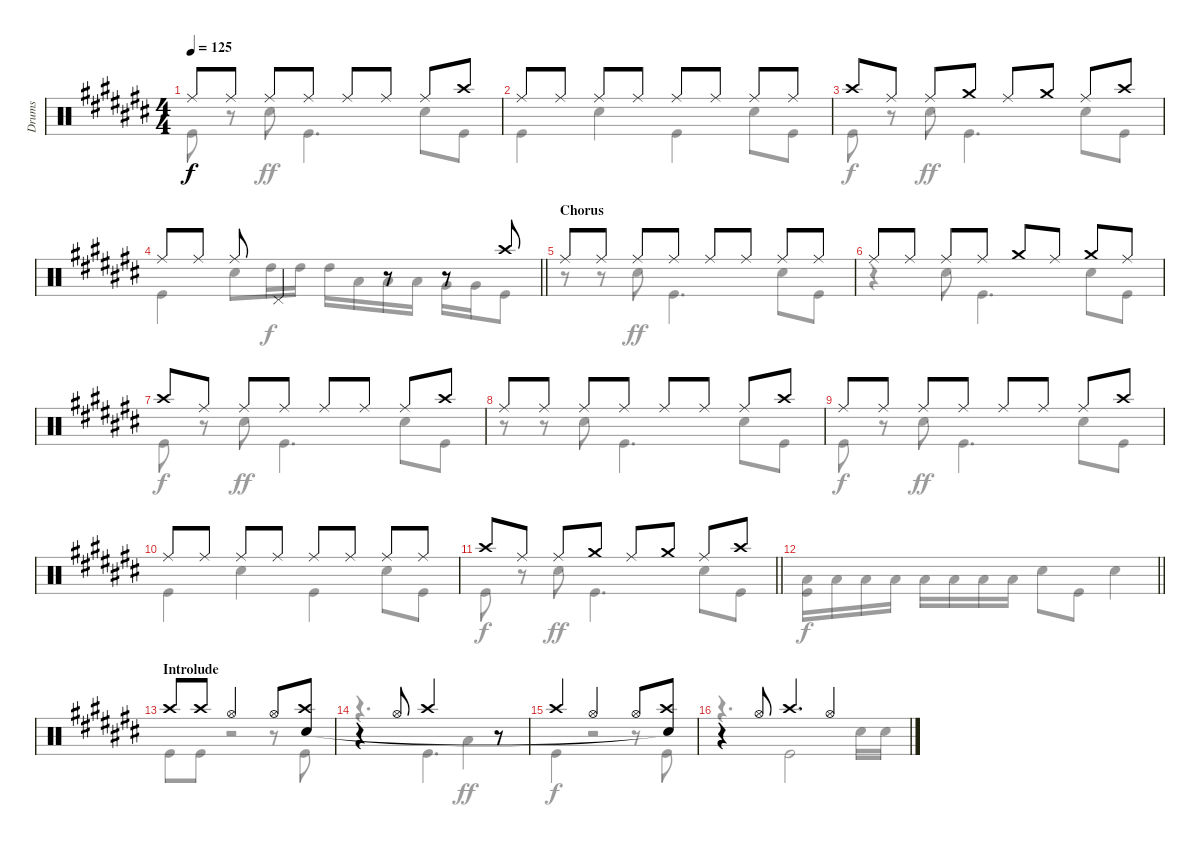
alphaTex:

\track ("Drums" "Drums") {instrument percussion}
\staff {score}
\articulation defaults
\voice
\ts (4 4)
\tempo 125
\clef neutral
\ks c# "Ride (middle)".8{dy f} "Ride (middle)".8 "Ride (middle)".8 "Ride (middle)".8 "Ride (middle)".8 "Ride (middle)".8 "Ride (middle)".8 "Crash high (hit)".8
|
"Ride (middle)".8 "Ride (middle)".8 "Ride (middle)".8 "Ride (middle)".8 "Ride (middle)".8 "Ride (middle)".8 "Ride (middle)".8 "Ride (middle)".8 |
"Crash high (hit)".8 "Ride (middle)".8 "Ride (middle)".8 "Crash medium (hit)".8 "Ride (middle)".8 "Crash medium (hit)".8 "Ride (middle)".8 "Crash high (hit)".8 |
\barLineRight lightlight "Ride (middle)".8 "Ride (middle)".8 "Ride (middle)".8 "Pedal Hi-Hat (hit)".4
r.8 r.8 "Crash high (hit)".8 |
\section ("" "Chorus")
"Ride (middle)".8 "Ride (middle)".8 "Ride (middle)".8 "Ride (middle)".8 "Ride (middle)".8 "Ride (middle)".8 "Ride (middle)".8 "Ride (middle)".8 |
"Ride (middle)".8 "Ride (middle)".8 "Ride (middle)".8 "Ride (middle)".8 "Crash medium (hit)".8 "Ride (middle)".8 "Crash medium (hit)".8 "Ride (middle)".8 |
"Crash high (hit)".8 "Ride (middle)".8 "Ride (middle)".8 "Ride (middle)".8 "Ride (middle)".8 "Ride (middle)".8 "Ride (middle)".8 "Crash high (hit)".8 |
"Ride (middle)".8 "Ride (middle)".8 "Ride (middle)".8 "Ride (middle)".8 "Ride (middle)".8 "Ride (middle)".8 "Ride (middle)".8 "Crash high (hit)".8 |
"Ride (middle)".8 "Ride (middle)".8 "Ride (middle)".8 "Ride (middle)".8 "Ride (middle)".8 "Ride (middle)".8 "Ride (middle)".8 "Crash high (hit)".8 |
"Ride (middle)".8 "Ride (middle)".8 "Ride (middle)".8 "Ride (middle)".8 "Ride (middle)".8 "Ride (middle)".8 "Ride (middle)".8 "Ride (middle)".8 |
\barLineRight lightlight "Crash high (hit)".8 "Ride (middle)".8 "Ride (middle)".8 "Crash medium (hit)".8 "Ride (middle)".8 "Crash medium (hit)".8 "Ride (middle)".8 "Crash high (hit)".8
|
\barLineRight lightlight
|
\section ("" "Introlude")
"Crash high (hit)".8 "Crash high (hit)".8 "Hi-Hat (open)".2 "Hi-Hat (open)".8 ("Crash high (hit)" "Snare (hit)").8 |
r.4 "Hi-Hat (open)".8 "Crash high (hit)".2 r.8 |
"Crash high (hit)".4 "Hi-Hat (open)".2 "Hi-Hat (open)".8 ("Crash high (hit)" "Snare (hit)"{t}).8 |
r.4 "Hi-Hat (open)".8 "Crash high (hit)".4{d} "Hi-Hat (open)".4
\voice
\clef neutral
\ottava regular
\simile none
\ks c# "Kick (hit)".8{dy f}
r.8 "Snare (hit) 2".8{dy ff} "Kick (hit)".4{d} "Snare (hit) 2".8 "Kick (hit)".8 |
"Kick (hit)".4 "Snare (hit) 2".4 "Kick (hit)".4 "Snare (hit) 2".8 "Kick (hit)".8 |
"Kick (hit)".8{dy f} r.8 "Snare (hit) 2".8{dy ff} "Kick (hit)".4{d} "Snare (hit) 2".8 "Kick (hit)".8 |
\barLineRight lightlight "Kick (hit)".4 "Snare (hit) 2".8 "High Tom (hit)".16{dy f} "High Tom (hit)".16 "High Tom (hit)".16 "Low Tom (hit)".16 "Low Tom (hit)".16 "Low Tom (hit)".16 "Very Low Tom (hit)".16 "Very Low Tom (hit)".16 "Kick (hit)".8
|
r.8 r.8 "Snare (hit) 2".8{dy ff} "Kick (hit)".4{d} "Snare (hit) 2".8 "Kick (hit)".8 |
r.4 "Snare (hit) 2".8 "Kick (hit)".4{d} "Snare (hit) 2".8 "Kick (hit)".8 |
"Kick (hit)".8{dy f} r.8 "Snare (hit) 2".8{dy ff} "Kick (hit)".4{d} "Snare (hit) 2".8 "Kick (hit)".8 |
r.8 r.8 "Snare (hit) 2".8 "Kick (hit)".4{d} "Snare (hit) 2".8 "Kick (hit)".8 |
"Kick (hit)".8{dy f} r.8 "Snare (hit) 2".8{dy ff} "Kick (hit)".4{d} "Snare (hit) 2".8 "Kick (hit)".8 |
"Kick (hit)".4 "Snare (hit) 2".4 "Kick (hit)".4 "Snare (hit) 2".8 "Kick (hit)".8 |
\barLineRight lightlight "Kick (hit)".8{dy f}
r.8 "Snare (hit) 2".8{dy ff} "Kick (hit)".4{d} "Snare (hit) 2".8 "Kick (hit)".8 |
\barLineRight lightlight
("Low Tom (hit)" "Kick (hit)").16{dy f} "Low Tom (hit)".16 "Low Tom (hit)".16 "Low Tom (hit)".16 "Low Tom (hit)".16 "Low Tom (hit)".16 "Low Floor Tom (hit)".16 "Low Floor Tom (hit)".16 "Snare (hit) 2".8 "Kick (hit)".8 "Snare (hit) 2".4 |
"Kick (hit)".8 "Kick (hit)".8 r.2 r.8 "Kick (hit)".8 |
r.4{d} "Kick (hit)".4{d} "Low Floor Tom (hit)".4{dy ff} |
"Kick (hit)".4{dy f} r.2 r.8 "Kick (hit)".8 |
r.4{d} "Kick (hit)".2 "Snare (hit) 2".16 "Snare (hit) 2".16
